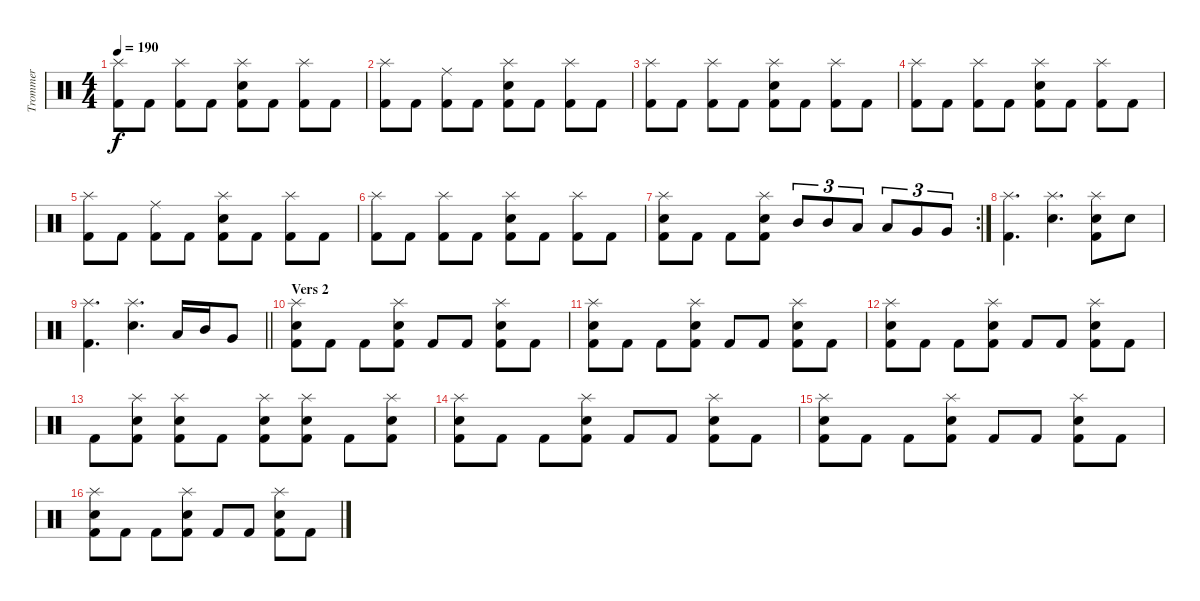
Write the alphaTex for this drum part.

\track ("Trommer" "Trommer") {instrument percussion}
\staff {score}
\articulation defaults
\ts (4 4)
\tempo 190
\clef neutral
\ks c
("Splash (hit)" "Kick (hit) 2").8{dy f} "Kick (hit) 2".8 ("Splash (hit)" "Kick (hit) 2").8 "Kick (hit) 2".8 ("Splash (hit)" "Snare (hit) 2" "Kick (hit) 2").8 "Kick (hit) 2".8 ("Splash (hit)" "Kick (hit) 2").8 "Kick (hit) 2".8 |
("Splash (hit)" "Kick (hit) 2").8 "Kick (hit) 2".8 ("Ride (middle)" "Kick (hit) 2").8 "Kick (hit) 2".8 ("Splash (hit)" "Snare (hit) 2" "Kick (hit) 2").8 "Kick (hit) 2".8 ("Splash (hit)" "Kick (hit) 2").8 "Kick (hit) 2".8 |
("Splash (hit)" "Kick (hit) 2").8 "Kick (hit) 2".8 ("Splash (hit)" "Kick (hit) 2").8 "Kick (hit) 2".8 ("Splash (hit)" "Snare (hit) 2" "Kick (hit) 2").8 "Kick (hit) 2".8 ("Splash (hit)" "Kick (hit) 2").8 "Kick (hit) 2".8 |
("Splash (hit)" "Kick (hit) 2").8 "Kick (hit) 2".8 ("Splash (hit)" "Kick (hit) 2").8 "Kick (hit) 2".8 ("Splash (hit)" "Snare (hit) 2" "Kick (hit) 2").8 "Kick (hit) 2".8 ("Splash (hit)" "Kick (hit) 2").8 "Kick (hit) 2".8 |
("Splash (hit)" "Kick (hit) 2").8 "Kick (hit) 2".8 ("Ride (middle)" "Kick (hit) 2").8 "Kick (hit) 2".8 ("Splash (hit)" "Snare (hit) 2" "Kick (hit) 2").8 "Kick (hit) 2".8 ("Splash (hit)" "Kick (hit) 2").8 "Kick (hit) 2".8 |
("Splash (hit)" "Kick (hit) 2").8 "Kick (hit) 2".8 ("Splash (hit)" "Kick (hit) 2").8 "Kick (hit) 2".8 ("Splash (hit)" "Snare (hit) 2" "Kick (hit) 2").8 "Kick (hit) 2".8 ("Splash (hit)" "Kick (hit) 2").8 "Kick (hit) 2".8 |
\rc 2
("Splash (hit)" "Snare (hit) 2" "Kick (hit) 2").8 "Kick (hit) 2".8 "Kick (hit) 2".8 ("Splash (hit)" "Snare (hit) 2" "Kick (hit) 2").8 "Mid Tom (hit)".8{tu (3 2)} "Mid Tom (hit)".8{tu (3 2)} "Low Tom (hit)".8{tu (3 2)} "Low Tom (hit)".8{tu (3 2)} "Very Low Tom (hit)".8{tu (3 2)} "Very Low Tom (hit)".8{tu (3 2)} |
("Splash (hit)" "Kick (hit) 2").4{d} ("Splash (hit)" "Snare (hit) 2").4{d} ("Splash (hit)" "Snare (hit) 2" "Kick (hit) 2").8 "Snare (hit) 2".8 |
\barLineRight lightlight
("Splash (hit)" "Kick (hit) 2").4{d} ("Splash (hit)" "Snare (hit) 2").4{d} "Low Tom (hit)".16 "Mid Tom (hit)".16 "Very Low Tom (hit)".8 |
\section ("" "Vers 2")
("Splash (hit)" "Snare (hit) 2" "Kick (hit) 2").8 "Kick (hit) 2".8 "Kick (hit) 2".8 ("Splash (hit)" "Snare (hit) 2" "Kick (hit) 2").8 "Kick (hit) 2".8 "Kick (hit) 2".8 ("Splash (hit)" "Snare (hit) 2" "Kick (hit) 2").8 "Kick (hit) 2".8 |
("Splash (hit)" "Snare (hit) 2" "Kick (hit) 2").8 "Kick (hit) 2".8 "Kick (hit) 2".8 ("Splash (hit)" "Snare (hit) 2" "Kick (hit) 2").8 "Kick (hit) 2".8 "Kick (hit) 2".8 ("Splash (hit)" "Snare (hit) 2" "Kick (hit) 2").8 "Kick (hit) 2".8 |
("Splash (hit)" "Snare (hit) 2" "Kick (hit) 2").8 "Kick (hit) 2".8 "Kick (hit) 2".8 ("Splash (hit)" "Snare (hit) 2" "Kick (hit) 2").8 "Kick (hit) 2".8 "Kick (hit) 2".8 ("Splash (hit)" "Snare (hit) 2" "Kick (hit) 2").8 "Kick (hit) 2".8 |
"Kick (hit) 2".8 ("Splash (hit)" "Snare (hit) 2" "Kick (hit) 2").8 ("Splash (hit)" "Snare (hit) 2" "Kick (hit) 2").8 "Kick (hit) 2".8 ("Splash (hit)" "Snare (hit) 2" "Kick (hit) 2").8 ("Splash (hit)" "Snare (hit) 2" "Kick (hit) 2").8 "Kick (hit) 2".8 ("Splash (hit)" "Snare (hit) 2" "Kick (hit) 2").8 |
("Splash (hit)" "Snare (hit) 2" "Kick (hit) 2").8 "Kick (hit) 2".8 "Kick (hit) 2".8 ("Splash (hit)" "Snare (hit) 2" "Kick (hit) 2").8 "Kick (hit) 2".8 "Kick (hit) 2".8 ("Splash (hit)" "Snare (hit) 2" "Kick (hit) 2").8 "Kick (hit) 2".8 |
("Splash (hit)" "Snare (hit) 2" "Kick (hit) 2").8 "Kick (hit) 2".8 "Kick (hit) 2".8 ("Splash (hit)" "Snare (hit) 2" "Kick (hit) 2").8 "Kick (hit) 2".8 "Kick (hit) 2".8 ("Splash (hit)" "Snare (hit) 2" "Kick (hit) 2").8 "Kick (hit) 2".8 |
("Splash (hit)" "Snare (hit) 2" "Kick (hit) 2").8 "Kick (hit) 2".8 "Kick (hit) 2".8 ("Splash (hit)" "Snare (hit) 2" "Kick (hit) 2").8 "Kick (hit) 2".8 "Kick (hit) 2".8 ("Splash (hit)" "Snare (hit) 2" "Kick (hit) 2").8 "Kick (hit) 2".8
